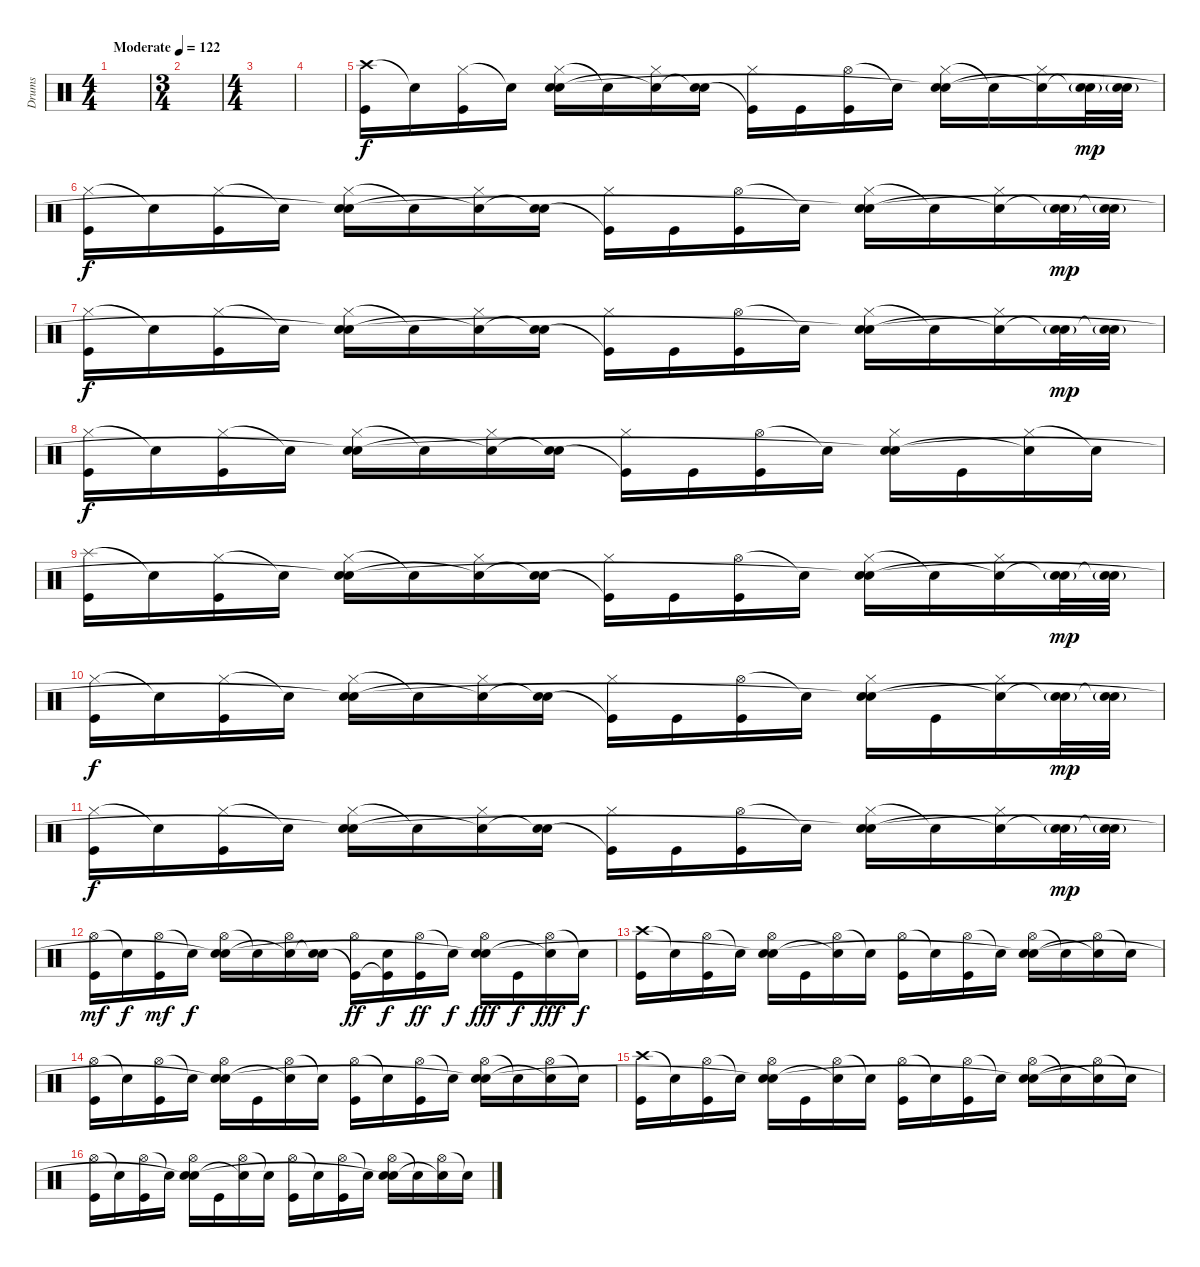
\track ("Drums" "Drums") {instrument percussion}
\staff {score}
\articulation defaults
\ts (4 4)
\tempo (122 "Moderate")
\clef neutral
\ks c
|
\ts (3 4)
|
\ts (4 4)
|
|
("Crash high (hit)" "Kick (hit)").16 "Snare (hit)"{t}.16 ("Hi-Hat (closed)" "Kick (hit)").16 "Snare (hit)"{t}.16 ("Hi-Hat (closed)" "Electric Snare (hit)" "Snare (hit)").16 "Snare (hit)"{t}.16 ("Hi-Hat (closed)" "Snare (hit)"{t}).16 ("Electric Snare (hit)" "Snare (hit)"{t}).16 ("Hi-Hat (closed)" "Kick (hit)"{t}).16 "Kick (hit)".16 ("Hi-Hat (open)" "Kick (hit)").16 "Snare (hit)"{t}.16 ("Hi-Hat (closed)" "Electric Snare (hit)" "Snare (hit)"{t}).16 "Snare (hit)"{t}.16 ("Hi-Hat (closed)" "Snare (hit)"{t}).16 ("Electric Snare (hit)"{g} "Snare (hit)"{t}).32{dy mp} ("Electric Snare (hit)"{g} "Snare (hit)"{t}).32 |
("Hi-Hat (closed)" "Kick (hit)").16{dy f} "Snare (hit)"{t}.16 ("Hi-Hat (closed)" "Kick (hit)").16 "Snare (hit)"{t}.16 ("Hi-Hat (closed)" "Electric Snare (hit)" "Snare (hit)"{t}).16 "Snare (hit)"{t}.16 ("Hi-Hat (closed)" "Snare (hit)"{t}).16 ("Electric Snare (hit)" "Snare (hit)"{t}).16 ("Hi-Hat (closed)" "Kick (hit)"{t}).16 "Kick (hit)".16 ("Hi-Hat (open)" "Kick (hit)").16 "Snare (hit)"{t}.16 ("Hi-Hat (closed)" "Electric Snare (hit)" "Snare (hit)"{t}).16 "Snare (hit)"{t}.16 ("Hi-Hat (closed)" "Snare (hit)"{t}).16 ("Electric Snare (hit)"{g} "Snare (hit)"{t}).32{dy mp} ("Electric Snare (hit)"{g} "Snare (hit)"{t}).32 |
("Hi-Hat (closed)" "Kick (hit)").16{dy f} "Snare (hit)"{t}.16 ("Hi-Hat (closed)" "Kick (hit)").16 "Snare (hit)"{t}.16 ("Hi-Hat (closed)" "Electric Snare (hit)" "Snare (hit)"{t}).16 "Snare (hit)"{t}.16 ("Hi-Hat (closed)" "Snare (hit)"{t}).16 ("Electric Snare (hit)" "Snare (hit)"{t}).16 ("Hi-Hat (closed)" "Kick (hit)"{t}).16 "Kick (hit)".16 ("Hi-Hat (open)" "Kick (hit)").16 "Snare (hit)"{t}.16 ("Hi-Hat (closed)" "Electric Snare (hit)" "Snare (hit)"{t}).16 "Snare (hit)"{t}.16 ("Hi-Hat (closed)" "Snare (hit)"{t}).16 ("Electric Snare (hit)"{g} "Snare (hit)"{t}).32{dy mp} ("Electric Snare (hit)"{g} "Snare (hit)"{t}).32 |
("Hi-Hat (closed)" "Kick (hit)").16{dy f} "Snare (hit)"{t}.16 ("Hi-Hat (closed)" "Kick (hit)").16 "Snare (hit)"{t}.16 ("Hi-Hat (closed)" "Electric Snare (hit)" "Snare (hit)"{t}).16 "Snare (hit)"{t}.16 ("Hi-Hat (closed)" "Snare (hit)"{t}).16 ("Electric Snare (hit)" "Snare (hit)"{t}).16 ("Hi-Hat (closed)" "Kick (hit)"{t}).16 "Kick (hit)".16 ("Hi-Hat (open)" "Kick (hit)").16 "Snare (hit)"{t}.16 ("Hi-Hat (closed)" "Electric Snare (hit)" "Snare (hit)"{t}).16 "Kick (hit)".16 ("Hi-Hat (closed)" "Snare (hit)"{t}).16 "Snare (hit)"{t}.16 |
("Splash (hit)" "Kick (hit)").16 "Snare (hit)"{t}.16 ("Hi-Hat (closed)" "Kick (hit)").16 "Snare (hit)"{t}.16 ("Hi-Hat (closed)" "Electric Snare (hit)" "Snare (hit)"{t}).16 "Snare (hit)"{t}.16 ("Hi-Hat (closed)" "Snare (hit)"{t}).16 ("Electric Snare (hit)" "Snare (hit)"{t}).16 ("Hi-Hat (closed)" "Kick (hit)"{t}).16 "Kick (hit)".16 ("Hi-Hat (open)" "Kick (hit)").16 "Snare (hit)"{t}.16 ("Hi-Hat (closed)" "Electric Snare (hit)" "Snare (hit)"{t}).16 "Snare (hit)"{t}.16 ("Hi-Hat (closed)" "Snare (hit)"{t}).16 ("Electric Snare (hit)"{g} "Snare (hit)"{t}).32{dy mp} ("Electric Snare (hit)"{g} "Snare (hit)"{t}).32 |
("Hi-Hat (closed)" "Kick (hit)").16{dy f} "Snare (hit)"{t}.16 ("Hi-Hat (closed)" "Kick (hit)").16 "Snare (hit)"{t}.16 ("Hi-Hat (closed)" "Electric Snare (hit)" "Snare (hit)"{t}).16 "Snare (hit)"{t}.16 ("Hi-Hat (closed)" "Snare (hit)"{t}).16 ("Electric Snare (hit)" "Snare (hit)"{t}).16 ("Hi-Hat (closed)" "Kick (hit)"{t}).16 "Kick (hit)".16 ("Hi-Hat (open)" "Kick (hit)").16 "Snare (hit)"{t}.16 ("Hi-Hat (closed)" "Electric Snare (hit)" "Snare (hit)"{t}).16 "Kick (hit)".16 ("Hi-Hat (closed)" "Snare (hit)"{t}).16 ("Electric Snare (hit)"{g} "Snare (hit)"{t}).32{dy mp} ("Electric Snare (hit)"{g} "Snare (hit)"{t}).32 |
("Hi-Hat (closed)" "Kick (hit)").16{dy f} "Snare (hit)"{t}.16 ("Hi-Hat (closed)" "Kick (hit)").16 "Snare (hit)"{t}.16 ("Hi-Hat (closed)" "Electric Snare (hit)" "Snare (hit)"{t}).16 "Snare (hit)"{t}.16 ("Hi-Hat (closed)" "Snare (hit)"{t}).16 ("Electric Snare (hit)" "Snare (hit)"{t}).16 ("Hi-Hat (closed)" "Kick (hit)"{t}).16 "Kick (hit)".16 ("Hi-Hat (open)" "Kick (hit)").16 "Snare (hit)"{t}.16 ("Hi-Hat (closed)" "Electric Snare (hit)" "Snare (hit)"{t}).16 "Snare (hit)"{t}.16 ("Hi-Hat (closed)" "Snare (hit)"{t}).16 ("Electric Snare (hit)"{g} "Snare (hit)"{t}).32{dy mp} ("Electric Snare (hit)"{g} "Snare (hit)"{t}).32 |
("Hi-Hat (open)" "Kick (hit)").16{dy mf} "Snare (hit)"{t}.16{dy f} ("Hi-Hat (open)" "Kick (hit)").16{dy mf} "Snare (hit)"{t}.16{dy f} ("Hi-Hat (open)" "Electric Snare (hit)" "Snare (hit)"{t}).16 "Snare (hit)"{t}.16 ("Hi-Hat (open)" "Snare (hit)"{t}).16 ("Electric Snare (hit)" "Snare (hit)"{t}).16 ("Hi-Hat (open)" "Kick (hit)"{t}).16{dy ff} ("Electric Snare (hit)" "Kick (hit)"{t}).16{dy f} ("Hi-Hat (open)" "Kick (hit)").16{dy ff} "Snare (hit)"{t}.16{dy f} ("Hi-Hat (open)" "Electric Snare (hit)" "Snare (hit)"{t}).16{dy fff} "Kick (hit)".16{dy f} ("Hi-Hat (open)" "Snare (hit)"{t}).16{dy fff} "Snare (hit)"{t}.16{dy f} |
("Crash high (hit)" "Kick (hit)").16 "Snare (hit)"{t}.16 ("Hi-Hat (open)" "Kick (hit)").16 "Snare (hit)"{t}.16 ("Hi-Hat (open)" "Electric Snare (hit)" "Snare (hit)"{t}).16 "Kick (hit)".16 ("Hi-Hat (open)" "Snare (hit)"{t}).16 "Snare (hit)"{t}.16 ("Hi-Hat (open)" "Kick (hit)").16 "Snare (hit)"{t}.16 ("Hi-Hat (open)" "Kick (hit)").16 "Snare (hit)"{t}.16 ("Hi-Hat (open)" "Electric Snare (hit)" "Snare (hit)"{t}).16 "Snare (hit)"{t}.16 ("Hi-Hat (open)" "Snare (hit)"{t}).16 "Snare (hit)"{t}.16 |
("Hi-Hat (open)" "Kick (hit)").16 "Snare (hit)"{t}.16 ("Hi-Hat (open)" "Kick (hit)").16 "Snare (hit)"{t}.16 ("Hi-Hat (open)" "Electric Snare (hit)" "Snare (hit)"{t}).16 "Kick (hit)".16 ("Hi-Hat (open)" "Snare (hit)"{t}).16 "Snare (hit)"{t}.16 ("Hi-Hat (open)" "Kick (hit)").16 "Snare (hit)"{t}.16 ("Hi-Hat (open)" "Kick (hit)").16 "Snare (hit)"{t}.16 ("Hi-Hat (open)" "Electric Snare (hit)" "Snare (hit)"{t}).16 "Snare (hit)"{t}.16 ("Hi-Hat (open)" "Snare (hit)"{t}).16 "Snare (hit)"{t}.16 |
("Crash high (hit)" "Kick (hit)").16 "Snare (hit)"{t}.16 ("Hi-Hat (open)" "Kick (hit)").16 "Snare (hit)"{t}.16 ("Hi-Hat (open)" "Electric Snare (hit)" "Snare (hit)"{t}).16 "Kick (hit)".16 ("Hi-Hat (open)" "Snare (hit)"{t}).16 "Snare (hit)"{t}.16 ("Hi-Hat (open)" "Kick (hit)").16 "Snare (hit)"{t}.16 ("Hi-Hat (open)" "Kick (hit)").16 "Snare (hit)"{t}.16 ("Hi-Hat (open)" "Electric Snare (hit)" "Snare (hit)"{t}).16 "Snare (hit)"{t}.16 ("Hi-Hat (open)" "Snare (hit)"{t}).16 "Snare (hit)"{t}.16 |
("Hi-Hat (open)" "Kick (hit)").16 "Snare (hit)"{t}.16 ("Hi-Hat (open)" "Kick (hit)").16 "Snare (hit)"{t}.16 ("Hi-Hat (open)" "Electric Snare (hit)" "Snare (hit)"{t}).16 "Kick (hit)".16 ("Hi-Hat (open)" "Snare (hit)"{t}).16 "Snare (hit)"{t}.16 ("Hi-Hat (open)" "Kick (hit)").16 "Snare (hit)"{t}.16 ("Hi-Hat (open)" "Kick (hit)").16 "Snare (hit)"{t}.16 ("Hi-Hat (open)" "Electric Snare (hit)" "Snare (hit)"{t}).16 "Snare (hit)"{t}.16 ("Hi-Hat (open)" "Snare (hit)"{t}).16 "Snare (hit)"{t}.16
